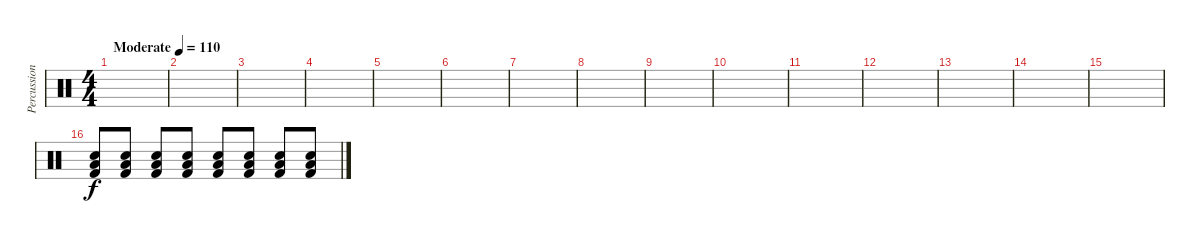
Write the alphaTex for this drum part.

\track ("Percussion" "Percussion") {instrument percussion}
\staff {score}
\articulation defaults
\ts (4 4)
\tempo (110 "Moderate")
\clef neutral
\ks c
|
|
|
|
|
|
|
|
|
|
|
|
|
|
|
("Low Floor Tom (hit)" "Electric Snare (hit)" "Kick (hit) 2").8 ("Low Floor Tom (hit)" "Electric Snare (hit)" "Kick (hit) 2").8 ("Low Floor Tom (hit)" "Electric Snare (hit)" "Kick (hit) 2").8 ("Low Floor Tom (hit)" "Electric Snare (hit)" "Kick (hit) 2").8 ("Low Floor Tom (hit)" "Electric Snare (hit)" "Kick (hit) 2").8 ("Low Floor Tom (hit)" "Electric Snare (hit)" "Kick (hit) 2").8 ("Low Floor Tom (hit)" "Electric Snare (hit)" "Kick (hit) 2").8 ("Low Floor Tom (hit)" "Electric Snare (hit)" "Kick (hit) 2").8
